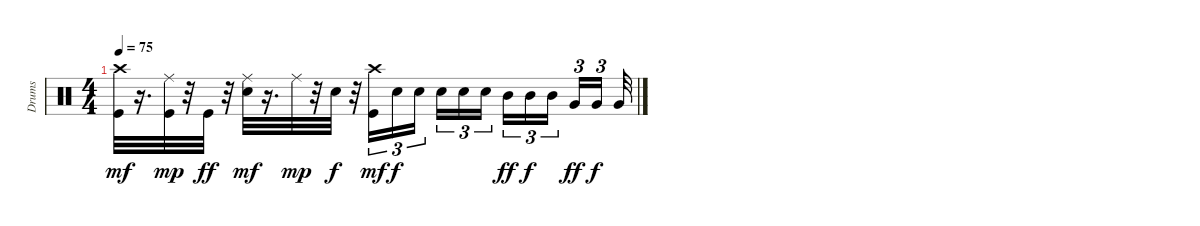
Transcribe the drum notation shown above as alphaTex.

\track ("Drums" "Drums") {instrument percussion}
\staff {score}
\articulation defaults
\ts (4 4)
\tempo 75
\clef neutral
\ks c
("Kick (hit)" "Crash high (hit)").32{dy mf} r.16{d} ("Kick (hit)" "Ride (middle)").32{dy mp} r.32 "Kick (hit)".32{dy ff} r.32 ("Snare (hit) 2" "Ride (middle)").32{dy mf} r.16{d} "Ride (middle)".32{dy mp} r.32 "Snare (hit) 2".32{dy f} r.32 ("Kick (hit)" "Crash high (hit)").16{tu (3 2) dy mf} "Snare (hit) 2".16{tu (3 2) dy f} "Snare (hit) 2".16{tu (3 2)} "Snare (hit) 2".16{tu (3 2)} "Snare (hit) 2".16{tu (3 2)} "Snare (hit) 2".16{tu (3 2)} "Mid Tom (hit)".16{tu (3 2) dy ff} "Mid Tom (hit)".16{tu (3 2) dy f} "Mid Tom (hit)".16{tu (3 2)} "Very Low Tom (hit)".16{tu (3 2) dy ff} "Very Low Tom (hit)".16{tu (3 2) dy f} "Very Low Tom (hit)".32
